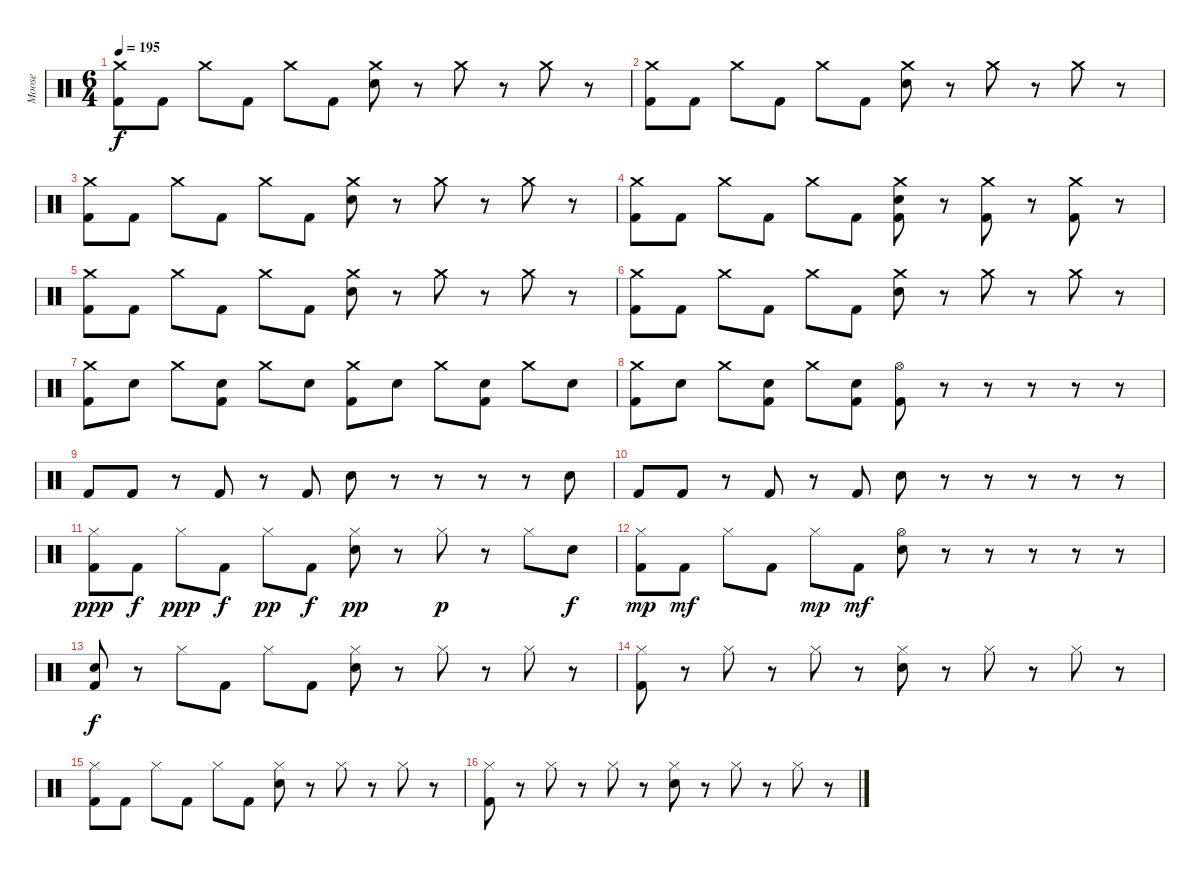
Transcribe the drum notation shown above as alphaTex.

\track ("Moose" "Moose") {instrument percussion}
\staff {score}
\articulation defaults
\ts (6 4)
\tempo 195
\clef neutral
\ks c
("Crash medium (hit)" "Kick (hit) 2").8{dy f} "Kick (hit) 2".8 "Crash medium (hit)".8 "Kick (hit) 2".8 "Crash medium (hit)".8 "Kick (hit) 2".8 ("Crash medium (hit)" "Electric Snare (hit)").8 r.8 "Crash medium (hit)".8 r.8 "Crash medium (hit)".8 r.8 |
("Crash medium (hit)" "Kick (hit) 2").8 "Kick (hit) 2".8 "Crash medium (hit)".8 "Kick (hit) 2".8 "Crash medium (hit)".8 "Kick (hit) 2".8 ("Crash medium (hit)" "Electric Snare (hit)").8 r.8 "Crash medium (hit)".8 r.8 "Crash medium (hit)".8 r.8 |
("Crash medium (hit)" "Kick (hit) 2").8 "Kick (hit) 2".8 "Crash medium (hit)".8 "Kick (hit) 2".8 "Crash medium (hit)".8 "Kick (hit) 2".8 ("Crash medium (hit)" "Electric Snare (hit)").8 r.8 "Crash medium (hit)".8 r.8 "Crash medium (hit)".8 r.8 |
("Crash medium (hit)" "Kick (hit) 2").8 "Kick (hit) 2".8 "Crash medium (hit)".8 "Kick (hit) 2".8 "Crash medium (hit)".8 "Kick (hit) 2".8 ("Crash medium (hit)" "Electric Snare (hit)" "Kick (hit) 2").8 r.8 ("Crash medium (hit)" "Kick (hit) 2").8 r.8 ("Crash medium (hit)" "Kick (hit) 2").8 r.8 |
("Crash medium (hit)" "Kick (hit) 2").8 "Kick (hit) 2".8 "Crash medium (hit)".8 "Kick (hit) 2".8 "Crash medium (hit)".8 "Kick (hit) 2".8 ("Crash medium (hit)" "Electric Snare (hit)").8 r.8 "Crash medium (hit)".8 r.8 "Crash medium (hit)".8 r.8 |
("Crash medium (hit)" "Kick (hit) 2").8 "Kick (hit) 2".8 "Crash medium (hit)".8 "Kick (hit) 2".8 "Crash medium (hit)".8 "Kick (hit) 2".8 ("Crash medium (hit)" "Electric Snare (hit)").8 r.8 "Crash medium (hit)".8 r.8 "Crash medium (hit)".8 r.8 |
("Crash medium (hit)" "Kick (hit) 2").8 "Electric Snare (hit)".8 "Crash medium (hit)".8 ("Electric Snare (hit)" "Kick (hit) 2").8 "Crash medium (hit)".8 "Electric Snare (hit)".8 ("Crash medium (hit)" "Kick (hit) 2").8 "Electric Snare (hit)".8 "Crash medium (hit)".8 ("Electric Snare (hit)" "Kick (hit) 2").8 "Crash medium (hit)".8 "Electric Snare (hit)".8 |
("Crash medium (hit)" "Kick (hit) 2").8 "Electric Snare (hit)".8 "Crash medium (hit)".8 ("Electric Snare (hit)" "Kick (hit) 2").8 "Crash medium (hit)".8 ("Electric Snare (hit)" "Kick (hit) 2").8 ("Hi-Hat (open)" "Kick (hit) 2").8 r.8 r.8 r.8 r.8 r.8 |
"Kick (hit) 2".8 "Kick (hit) 2".8 r.8 "Kick (hit) 2".8 r.8 "Kick (hit) 2".8 "Electric Snare (hit)".8 r.8 r.8 r.8 r.8 "Electric Snare (hit)".8 |
"Kick (hit) 2".8 "Kick (hit) 2".8 r.8 "Kick (hit) 2".8 r.8 "Kick (hit) 2".8 "Electric Snare (hit)".8 r.8 r.8 r.8 r.8 r.8 |
("Hi-Hat (closed)" "Kick (hit) 2").8{dy ppp} "Kick (hit) 2".8{dy f} "Hi-Hat (closed)".8{dy ppp} "Kick (hit) 2".8{dy f} "Hi-Hat (closed)".8{dy pp} "Kick (hit) 2".8{dy f} ("Hi-Hat (closed)" "Electric Snare (hit)").8{dy pp} r.8 "Hi-Hat (closed)".8{dy p} r.8 "Hi-Hat (closed)".8 "Electric Snare (hit)".8{dy f} |
("Hi-Hat (closed)" "Kick (hit) 2").8{dy mp} "Kick (hit) 2".8{dy mf} "Hi-Hat (closed)".8 "Kick (hit) 2".8 "Hi-Hat (closed)".8{dy mp} "Kick (hit) 2".8{dy mf} ("Hi-Hat (open)" "Electric Snare (hit)").8 r.8 r.8 r.8 r.8 r.8 |
("Electric Snare (hit)" "Kick (hit) 2").8{dy f} r.8 "Hi-Hat (closed)".8 "Kick (hit) 2".8 "Hi-Hat (closed)".8 "Kick (hit) 2".8 ("Hi-Hat (closed)" "Electric Snare (hit)").8 r.8 "Hi-Hat (closed)".8 r.8 "Hi-Hat (closed)".8 r.8 |
("Hi-Hat (closed)" "Kick (hit) 2").8 r.8 "Hi-Hat (closed)".8 r.8 "Hi-Hat (closed)".8 r.8 ("Hi-Hat (closed)" "Electric Snare (hit)").8 r.8 "Hi-Hat (closed)".8 r.8 "Hi-Hat (closed)".8 r.8 |
("Hi-Hat (closed)" "Kick (hit) 2").8 "Kick (hit) 2".8 "Hi-Hat (closed)".8 "Kick (hit) 2".8 "Hi-Hat (closed)".8 "Kick (hit) 2".8 ("Hi-Hat (closed)" "Electric Snare (hit)").8 r.8 "Hi-Hat (closed)".8 r.8 "Hi-Hat (closed)".8 r.8 |
("Hi-Hat (closed)" "Kick (hit) 2").8 r.8 "Hi-Hat (closed)".8 r.8 "Hi-Hat (closed)".8 r.8 ("Hi-Hat (closed)" "Electric Snare (hit)").8 r.8 "Hi-Hat (closed)".8 r.8 "Hi-Hat (closed)".8 r.8
